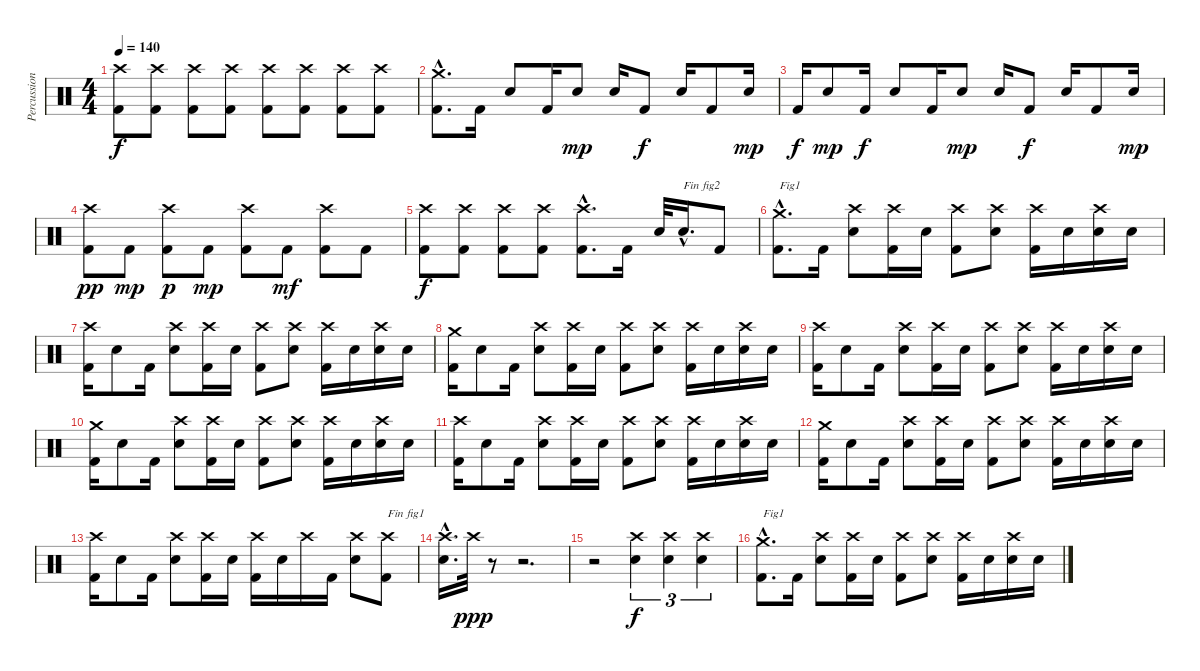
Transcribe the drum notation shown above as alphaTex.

\track ("Percussions" "Percussion") {instrument percussion}
\staff {score}
\articulation defaults
\ts (4 4)
\tempo 140
\clef neutral
\ks c
("Kick (hit) 2" "Crash high (hit)").8{dy f} ("Kick (hit) 2" "Crash high (hit)").8 ("Kick (hit) 2" "Crash high (hit)").8 ("Kick (hit) 2" "Crash high (hit)").8 ("Kick (hit) 2" "Crash high (hit)").8 ("Kick (hit) 2" "Crash high (hit)").8 ("Kick (hit) 2" "Crash high (hit)").8 ("Kick (hit) 2" "Crash high (hit)").8 |
("Kick (hit) 2"{hac} "Crash medium (hit)"{hac}).8{d} "Kick (hit) 2".16 "Electric Snare (hit)".8 "Kick (hit) 2".16 "Snare (hit) 2".8{dy mp} "Snare (hit) 2".16 "Kick (hit) 2".8{dy f} "Electric Snare (hit)".16 "Kick (hit) 2".8 "Snare (hit) 2".16{dy mp} |
"Kick (hit) 2".16{dy f} "Snare (hit) 2".8{dy mp} "Kick (hit) 2".16{dy f} "Electric Snare (hit)".8 "Kick (hit) 2".16 "Snare (hit) 2".8{dy mp} "Snare (hit) 2".16 "Kick (hit) 2".8{dy f} "Electric Snare (hit)".16 "Kick (hit) 2".8 "Snare (hit) 2".16{dy mp} |
("Kick (hit) 2" "Crash high (hit)").8{dy pp} "Kick (hit) 2".8{dy mp} ("Kick (hit) 2" "Crash high (hit)").8{dy p} "Kick (hit) 2".8{dy mp} ("Kick (hit) 2" "Crash high (hit)").8 "Kick (hit) 2".8{dy mf} ("Kick (hit) 2" "Crash high (hit)").8 "Kick (hit) 2".8 |
("Kick (hit) 2" "Crash high (hit)").8{dy f} ("Kick (hit) 2" "Crash high (hit)").8 ("Kick (hit) 2" "Crash high (hit)").8 ("Kick (hit) 2" "Crash high (hit)").8 ("Kick (hit) 2"{hac} "Crash high (hit)"{hac}).8{d} "Kick (hit) 2".16 "Electric Snare (hit)".32 "Electric Snare (hit)"{hac}.16{d txt "Fin fig2"} "Kick (hit) 2".8 |
("Kick (hit) 2"{hac} "Crash medium (hit)"{hac}).8{d txt "Fig1"} "Kick (hit) 2".16 ("Electric Snare (hit)" "Crash high (hit)").8 ("Kick (hit) 2" "Crash high (hit)").16 "Electric Snare (hit)".16 ("Kick (hit) 2" "Crash high (hit)").8 ("Electric Snare (hit)" "Crash high (hit)").8 ("Kick (hit) 2" "Crash high (hit)").16 "Electric Snare (hit)".16 ("Electric Snare (hit)" "Crash high (hit)").16 "Electric Snare (hit)".16 |
("Kick (hit) 2" "Crash high (hit)").16 "Electric Snare (hit)".8 "Kick (hit) 2".16 ("Electric Snare (hit)" "Crash high (hit)").8 ("Kick (hit) 2" "Crash high (hit)").16 "Electric Snare (hit)".16 ("Kick (hit) 2" "Crash high (hit)").8 ("Electric Snare (hit)" "Crash high (hit)").8 ("Kick (hit) 2" "Crash high (hit)").16 "Electric Snare (hit)".16 ("Electric Snare (hit)" "Crash high (hit)").16 "Electric Snare (hit)".16 |
("Kick (hit) 2" "Crash medium (hit)").16 "Electric Snare (hit)".8 "Kick (hit) 2".16 ("Electric Snare (hit)" "Crash high (hit)").8 ("Kick (hit) 2" "Crash high (hit)").16 "Electric Snare (hit)".16 ("Kick (hit) 2" "Crash high (hit)").8 ("Electric Snare (hit)" "Crash high (hit)").8 ("Kick (hit) 2" "Crash high (hit)").16 "Electric Snare (hit)".16 ("Electric Snare (hit)" "Crash high (hit)").16 "Electric Snare (hit)".16 |
("Kick (hit) 2" "Crash high (hit)").16 "Electric Snare (hit)".8 "Kick (hit) 2".16 ("Electric Snare (hit)" "Crash high (hit)").8 ("Kick (hit) 2" "Crash high (hit)").16 "Electric Snare (hit)".16 ("Kick (hit) 2" "Crash high (hit)").8 ("Electric Snare (hit)" "Crash high (hit)").8 ("Kick (hit) 2" "Crash high (hit)").16 "Electric Snare (hit)".16 ("Electric Snare (hit)" "Crash high (hit)").16 "Electric Snare (hit)".16 |
("Kick (hit) 2" "Crash medium (hit)").16 "Electric Snare (hit)".8 "Kick (hit) 2".16 ("Electric Snare (hit)" "Crash high (hit)").8 ("Kick (hit) 2" "Crash high (hit)").16 "Electric Snare (hit)".16 ("Kick (hit) 2" "Crash high (hit)").8 ("Electric Snare (hit)" "Crash high (hit)").8 ("Kick (hit) 2" "Crash high (hit)").16 "Electric Snare (hit)".16 ("Electric Snare (hit)" "Crash high (hit)").16 "Electric Snare (hit)".16 |
("Kick (hit) 2" "Crash high (hit)").16 "Electric Snare (hit)".8 "Kick (hit) 2".16 ("Electric Snare (hit)" "Crash high (hit)").8 ("Kick (hit) 2" "Crash high (hit)").16 "Electric Snare (hit)".16 ("Kick (hit) 2" "Crash high (hit)").8 ("Electric Snare (hit)" "Crash high (hit)").8 ("Kick (hit) 2" "Crash high (hit)").16 "Electric Snare (hit)".16 ("Electric Snare (hit)" "Crash high (hit)").16 "Electric Snare (hit)".16 |
("Kick (hit) 2" "Crash medium (hit)").16 "Electric Snare (hit)".8 "Kick (hit) 2".16 ("Electric Snare (hit)" "Crash high (hit)").8 ("Kick (hit) 2" "Crash high (hit)").16 "Electric Snare (hit)".16 ("Kick (hit) 2" "Crash high (hit)").8 ("Electric Snare (hit)" "Crash high (hit)").8 ("Kick (hit) 2" "Crash high (hit)").16 "Electric Snare (hit)".16 ("Electric Snare (hit)" "Crash high (hit)").16 "Electric Snare (hit)".16 |
("Kick (hit) 2" "Crash high (hit)").16 "Electric Snare (hit)".8 "Kick (hit) 2".16 ("Electric Snare (hit)" "Crash high (hit)").8 ("Kick (hit) 2" "Crash high (hit)").16 "Electric Snare (hit)".16 ("Kick (hit) 2" "Crash high (hit)").16 "Electric Snare (hit)".16 "Crash high (hit)".16 "Kick (hit) 2".16 ("Electric Snare (hit)" "Crash high (hit)").8 ("Kick (hit) 2" "Crash high (hit)").8{txt "Fin fig1"} |
("Electric Snare (hit)"{hac} "Crash high (hit)"{hac}).16{d} "Crash high (hit)".32{dy ppp} r.8 r.2{d} |
r.2 ("Electric Snare (hit)" "Crash high (hit)").4{tu (3 2) dy f} ("Electric Snare (hit)" "Crash high (hit)").4{tu (3 2)} ("Electric Snare (hit)" "Crash high (hit)").4{tu (3 2)} |
("Kick (hit) 2"{hac} "Crash medium (hit)"{hac}).8{d txt "Fig1"} "Kick (hit) 2".16 ("Electric Snare (hit)" "Crash high (hit)").8 ("Kick (hit) 2" "Crash high (hit)").16 "Electric Snare (hit)".16 ("Kick (hit) 2" "Crash high (hit)").8 ("Electric Snare (hit)" "Crash high (hit)").8 ("Kick (hit) 2" "Crash high (hit)").16 "Electric Snare (hit)".16 ("Electric Snare (hit)" "Crash high (hit)").16 "Electric Snare (hit)".16
